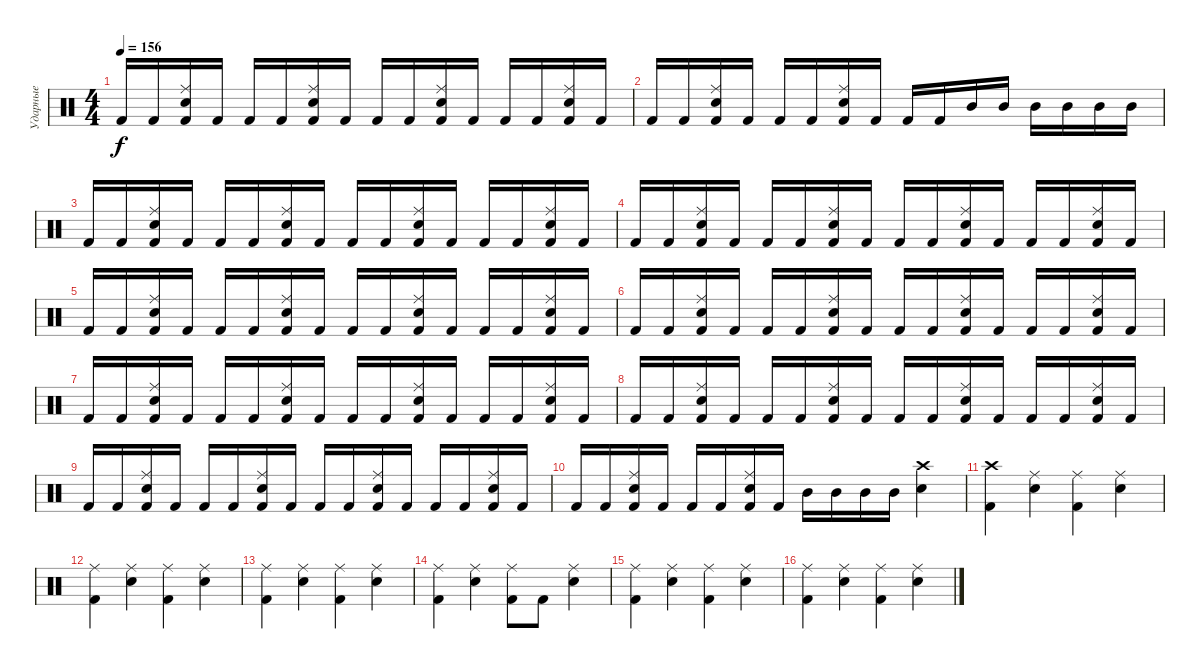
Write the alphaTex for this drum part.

\track ("Ударные" "Ударные") {instrument percussion}
\staff {score}
\articulation defaults
\ts (4 4)
\tempo 156
\clef neutral
\ks c "Kick (hit) 2".16{dy f} "Kick (hit) 2".16
("Ride (middle)" "Electric Snare (hit)" "Kick (hit) 2").16 "Kick (hit) 2".16 "Kick (hit) 2".16 "Kick (hit) 2".16 ("Ride (middle)" "Electric Snare (hit)" "Kick (hit) 2").16 "Kick (hit) 2".16 "Kick (hit) 2".16 "Kick (hit) 2".16 ("Ride (middle)" "Electric Snare (hit)" "Kick (hit) 2").16 "Kick (hit) 2".16 "Kick (hit) 2".16 "Kick (hit) 2".16 ("Ride (middle)" "Electric Snare (hit)" "Kick (hit) 2").16 "Kick (hit) 2".16 |
"Kick (hit) 2".16 "Kick (hit) 2".16 ("Ride (middle)" "Electric Snare (hit)" "Kick (hit) 2").16 "Kick (hit) 2".16 "Kick (hit) 2".16 "Kick (hit) 2".16 ("Ride (middle)" "Electric Snare (hit)" "Kick (hit) 2").16 "Kick (hit) 2".16 "Kick (hit) 2".16 "Kick (hit) 2".16 "Mid Tom (hit)".16 "Mid Tom (hit)".16 "Mid Tom (hit)".16 "Mid Tom (hit)".16 "Mid Tom (hit)".16 "Mid Tom (hit)".16 |
"Kick (hit) 2".16 "Kick (hit) 2".16 ("Ride (middle)" "Electric Snare (hit)" "Kick (hit) 2").16 "Kick (hit) 2".16 "Kick (hit) 2".16 "Kick (hit) 2".16 ("Ride (middle)" "Electric Snare (hit)" "Kick (hit) 2").16 "Kick (hit) 2".16 "Kick (hit) 2".16 "Kick (hit) 2".16 ("Ride (middle)" "Electric Snare (hit)" "Kick (hit) 2").16 "Kick (hit) 2".16 "Kick (hit) 2".16 "Kick (hit) 2".16 ("Ride (middle)" "Electric Snare (hit)" "Kick (hit) 2").16 "Kick (hit) 2".16 |
"Kick (hit) 2".16 "Kick (hit) 2".16 ("Ride (middle)" "Electric Snare (hit)" "Kick (hit) 2").16 "Kick (hit) 2".16 "Kick (hit) 2".16 "Kick (hit) 2".16 ("Ride (middle)" "Electric Snare (hit)" "Kick (hit) 2").16 "Kick (hit) 2".16 "Kick (hit) 2".16 "Kick (hit) 2".16 ("Ride (middle)" "Electric Snare (hit)" "Kick (hit) 2").16 "Kick (hit) 2".16 "Kick (hit) 2".16 "Kick (hit) 2".16 ("Ride (middle)" "Electric Snare (hit)" "Kick (hit) 2").16 "Kick (hit) 2".16 |
"Kick (hit) 2".16 "Kick (hit) 2".16 ("Ride (middle)" "Electric Snare (hit)" "Kick (hit) 2").16 "Kick (hit) 2".16 "Kick (hit) 2".16 "Kick (hit) 2".16 ("Ride (middle)" "Electric Snare (hit)" "Kick (hit) 2").16 "Kick (hit) 2".16 "Kick (hit) 2".16 "Kick (hit) 2".16 ("Ride (middle)" "Electric Snare (hit)" "Kick (hit) 2").16 "Kick (hit) 2".16 "Kick (hit) 2".16 "Kick (hit) 2".16 ("Ride (middle)" "Electric Snare (hit)" "Kick (hit) 2").16 "Kick (hit) 2".16 |
"Kick (hit) 2".16 "Kick (hit) 2".16 ("Ride (middle)" "Electric Snare (hit)" "Kick (hit) 2").16 "Kick (hit) 2".16 "Kick (hit) 2".16 "Kick (hit) 2".16 ("Ride (middle)" "Electric Snare (hit)" "Kick (hit) 2").16 "Kick (hit) 2".16 "Kick (hit) 2".16 "Kick (hit) 2".16 ("Ride (middle)" "Electric Snare (hit)" "Kick (hit) 2").16 "Kick (hit) 2".16 "Kick (hit) 2".16 "Kick (hit) 2".16 ("Ride (middle)" "Electric Snare (hit)" "Kick (hit) 2").16 "Kick (hit) 2".16 |
"Kick (hit) 2".16 "Kick (hit) 2".16 ("Ride (middle)" "Electric Snare (hit)" "Kick (hit) 2").16 "Kick (hit) 2".16 "Kick (hit) 2".16 "Kick (hit) 2".16 ("Ride (middle)" "Electric Snare (hit)" "Kick (hit) 2").16 "Kick (hit) 2".16 "Kick (hit) 2".16 "Kick (hit) 2".16 ("Ride (middle)" "Electric Snare (hit)" "Kick (hit) 2").16 "Kick (hit) 2".16 "Kick (hit) 2".16 "Kick (hit) 2".16 ("Ride (middle)" "Electric Snare (hit)" "Kick (hit) 2").16 "Kick (hit) 2".16 |
"Kick (hit) 2".16 "Kick (hit) 2".16 ("Ride (middle)" "Electric Snare (hit)" "Kick (hit) 2").16 "Kick (hit) 2".16 "Kick (hit) 2".16 "Kick (hit) 2".16 ("Ride (middle)" "Electric Snare (hit)" "Kick (hit) 2").16 "Kick (hit) 2".16 "Kick (hit) 2".16 "Kick (hit) 2".16 ("Ride (middle)" "Electric Snare (hit)" "Kick (hit) 2").16 "Kick (hit) 2".16 "Kick (hit) 2".16 "Kick (hit) 2".16 ("Ride (middle)" "Electric Snare (hit)" "Kick (hit) 2").16 "Kick (hit) 2".16 |
"Kick (hit) 2".16 "Kick (hit) 2".16 ("Ride (middle)" "Electric Snare (hit)" "Kick (hit) 2").16 "Kick (hit) 2".16 "Kick (hit) 2".16 "Kick (hit) 2".16 ("Ride (middle)" "Electric Snare (hit)" "Kick (hit) 2").16 "Kick (hit) 2".16 "Kick (hit) 2".16 "Kick (hit) 2".16 ("Ride (middle)" "Electric Snare (hit)" "Kick (hit) 2").16 "Kick (hit) 2".16 "Kick (hit) 2".16 "Kick (hit) 2".16 ("Ride (middle)" "Electric Snare (hit)" "Kick (hit) 2").16 "Kick (hit) 2".16 |
"Kick (hit) 2".16 "Kick (hit) 2".16 ("Ride (middle)" "Electric Snare (hit)" "Kick (hit) 2").16 "Kick (hit) 2".16 "Kick (hit) 2".16 "Kick (hit) 2".16 ("Ride (middle)" "Electric Snare (hit)" "Kick (hit) 2").16 "Kick (hit) 2".16 "Mid Tom (hit)".16 "Mid Tom (hit)".16 "Mid Tom (hit)".16 "Mid Tom (hit)".16 ("Crash high (hit)" "Electric Snare (hit)").4 |
("Crash high (hit)" "Kick (hit) 2").4 ("Ride (middle)" "Electric Snare (hit)").4 ("Ride (middle)" "Kick (hit) 2").4 ("Ride (middle)" "Electric Snare (hit)").4 |
("Ride (middle)" "Kick (hit) 2").4 ("Ride (middle)" "Electric Snare (hit)").4 ("Ride (middle)" "Kick (hit) 2").4 ("Ride (middle)" "Electric Snare (hit)").4 |
("Ride (middle)" "Kick (hit) 2").4 ("Ride (middle)" "Electric Snare (hit)").4 ("Ride (middle)" "Kick (hit) 2").4 ("Ride (middle)" "Electric Snare (hit)").4 |
("Ride (middle)" "Kick (hit) 2").4 ("Ride (middle)" "Electric Snare (hit)").4 ("Ride (middle)" "Kick (hit) 2").8 "Kick (hit) 2".8 ("Ride (middle)" "Electric Snare (hit)").4 |
("Ride (middle)" "Kick (hit) 2").4 ("Ride (middle)" "Electric Snare (hit)").4 ("Ride (middle)" "Kick (hit) 2").4 ("Ride (middle)" "Electric Snare (hit)").4 |
("Ride (middle)" "Kick (hit) 2").4 ("Ride (middle)" "Electric Snare (hit)").4 ("Ride (middle)" "Kick (hit) 2").4 ("Ride (middle)" "Electric Snare (hit)").4
